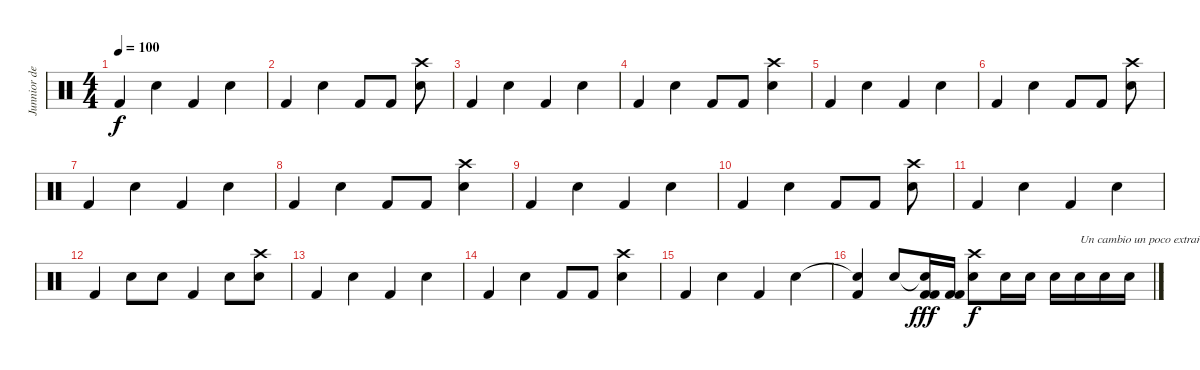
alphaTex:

\track ("Junnior de Jesus" "Junnior de") {instrument percussion}
\staff {score}
\articulation defaults
\ts (4 4)
\tempo 100
\clef neutral
\ks c "Kick (hit) 2".4{dy f} "Snare (hit) 2".4 "Kick (hit) 2".4 "Snare (hit) 2".4
|
"Kick (hit) 2".4 "Snare (hit) 2".4 "Kick (hit) 2".8 "Kick (hit) 2".8 ("Snare (hit) 2" "Crash high (hit)").8 |
"Kick (hit) 2".4 "Snare (hit) 2".4 "Kick (hit) 2".4 "Snare (hit) 2".4 |
"Kick (hit) 2".4 "Snare (hit) 2".4 "Kick (hit) 2".8 "Kick (hit) 2".8 ("Snare (hit) 2" "Crash high (hit)").4 |
"Kick (hit) 2".4 "Snare (hit) 2".4 "Kick (hit) 2".4 "Snare (hit) 2".4 |
"Kick (hit) 2".4 "Snare (hit) 2".4 "Kick (hit) 2".8 "Kick (hit) 2".8 ("Snare (hit) 2" "Crash high (hit)").8 |
"Kick (hit) 2".4 "Snare (hit) 2".4 "Kick (hit) 2".4 "Snare (hit) 2".4 |
"Kick (hit) 2".4 "Snare (hit) 2".4 "Kick (hit) 2".8 "Kick (hit) 2".8 ("Snare (hit) 2" "Crash high (hit)").4 |
"Kick (hit) 2".4 "Snare (hit) 2".4 "Kick (hit) 2".4 "Snare (hit) 2".4 |
"Kick (hit) 2".4 "Snare (hit) 2".4 "Kick (hit) 2".8 "Kick (hit) 2".8 ("Snare (hit) 2" "Crash high (hit)").8 |
"Kick (hit) 2".4 "Snare (hit) 2".4 "Kick (hit) 2".4 "Snare (hit) 2".4 |
"Kick (hit) 2".4 "Snare (hit) 2".8 "Snare (hit) 2".8 "Kick (hit) 2".4 "Snare (hit) 2".8 ("Snare (hit) 2" "Crash high (hit)").8 |
"Kick (hit) 2".4 "Snare (hit) 2".4 "Kick (hit) 2".4 "Snare (hit) 2".4 |
"Kick (hit) 2".4 "Snare (hit) 2".4 "Kick (hit) 2".8 "Kick (hit) 2".8 ("Snare (hit) 2" "Crash high (hit)").4 |
"Kick (hit) 2".4 "Snare (hit) 2".4 "Kick (hit) 2".4 "Snare (hit) 2".4 |
("Snare (hit)"{t} "Kick (hit) 2").4 "Snare (hit) 2".8 ("Snare (hit)"{t} "Kick (hit) 2" "Kick (hit) 2").16{dy fff} ("Kick (hit) 2" "Kick (hit) 2").16 ("Crash high (hit)" "Electric Snare (hit)").8{dy f} "Electric Snare (hit)".16 "Electric Snare (hit)".16 "Electric Snare (hit)".16 "Electric Snare (hit)".16{txt "Un cambio un poco extraño..."} "Electric Snare (hit)".16 "Electric Snare (hit)".16
